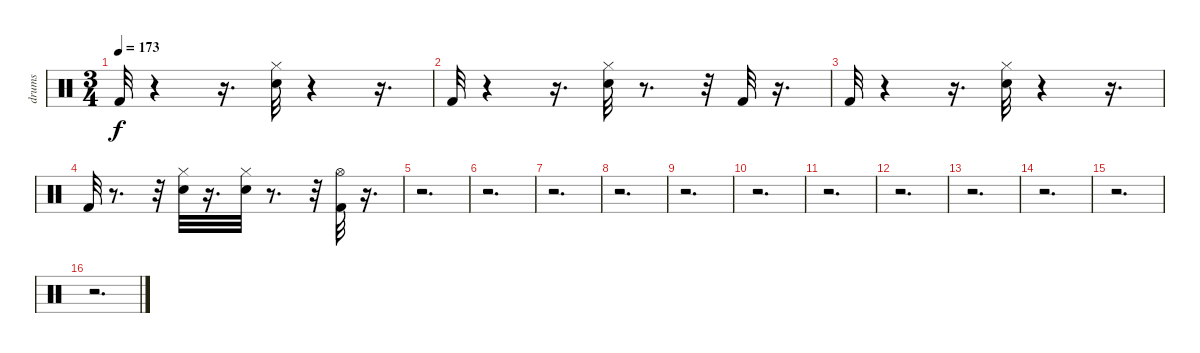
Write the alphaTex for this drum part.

\track ("drums" "drums") {instrument percussion}
\staff {score}
\articulation defaults
\ts (3 4)
\tempo 173
\clef neutral
\ks c "Kick (hit) 2".32{dy f}
r.4 r.16{d} ("Hi-Hat (closed)" "Snare (hit) 2").32 r.4 r.16{d} |
"Kick (hit) 2".32 r.4 r.16{d} ("Snare (hit) 2" "Hi-Hat (closed)").32 r.8{d} r.32 "Kick (hit) 2".32 r.16{d} |
"Kick (hit) 2".32 r.4 r.16{d} ("Hi-Hat (closed)" "Snare (hit) 2").32 r.4 r.16{d} |
"Kick (hit) 2".32 r.8{d} r.32 ("Hi-Hat (closed)" "Snare (hit) 2").32 r.16{d} ("Hi-Hat (closed)" "Snare (hit) 2").32 r.8{d} r.32 ("Hi-Hat (open)" "Kick (hit) 2").32 r.16{d} |
r.2{d} |
r.2{d} |
r.2{d} |
r.2{d} |
r.2{d} |
r.2{d} |
r.2{d} |
r.2{d} |
r.2{d} |
r.2{d} |
r.2{d} |
r.2{d}
